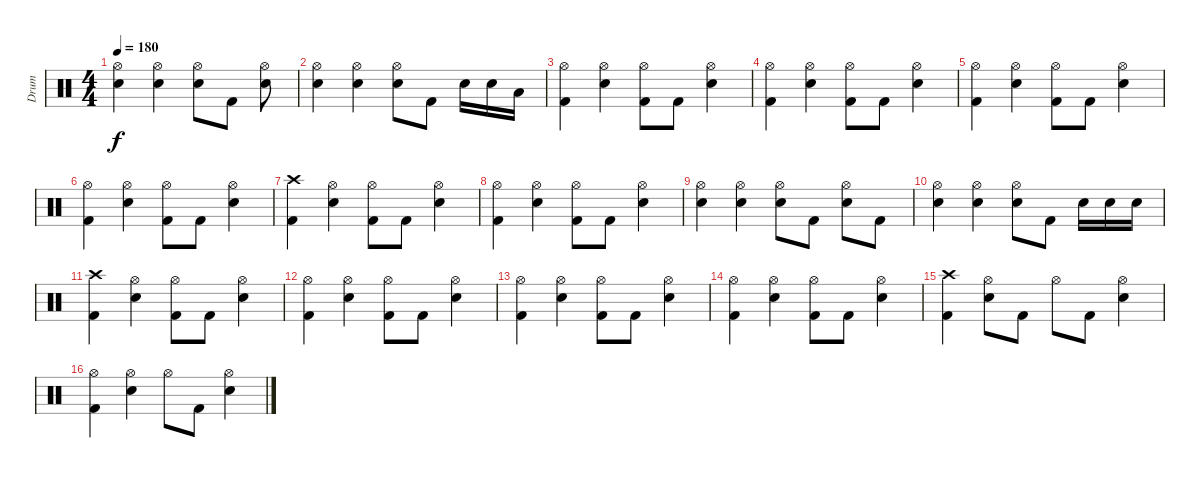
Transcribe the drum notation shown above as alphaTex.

\track ("Drum" "Drum") {instrument percussion}
\staff {score}
\articulation defaults
\ts (4 4)
\tempo 180
\clef neutral
\ks c
("Hi-Hat (open)" "Electric Snare (hit)").4{dy f} ("Hi-Hat (open)" "Electric Snare (hit)").4 ("Hi-Hat (open)" "Electric Snare (hit)").8 "Kick (hit) 2".8 ("Hi-Hat (open)" "Electric Snare (hit)").8 |
("Hi-Hat (open)" "Electric Snare (hit)").4 ("Hi-Hat (open)" "Electric Snare (hit)").4 ("Hi-Hat (open)" "Electric Snare (hit)").8 "Kick (hit) 2".8 "Electric Snare (hit)".16 "Electric Snare (hit)".16 "Low Tom (hit)".16 |
("Hi-Hat (open)" "Kick (hit) 2").4 ("Hi-Hat (open)" "Electric Snare (hit)").4 ("Hi-Hat (open)" "Kick (hit) 2").8 "Kick (hit) 2".8 ("Hi-Hat (open)" "Electric Snare (hit)").4 |
("Hi-Hat (open)" "Kick (hit) 2").4 ("Hi-Hat (open)" "Electric Snare (hit)").4 ("Hi-Hat (open)" "Kick (hit) 2").8 "Kick (hit) 2".8 ("Hi-Hat (open)" "Electric Snare (hit)").4 |
("Hi-Hat (open)" "Kick (hit) 2").4 ("Hi-Hat (open)" "Electric Snare (hit)").4 ("Hi-Hat (open)" "Kick (hit) 2").8 "Kick (hit) 2".8 ("Hi-Hat (open)" "Electric Snare (hit)").4 |
("Hi-Hat (open)" "Kick (hit) 2").4 ("Hi-Hat (open)" "Electric Snare (hit)").4 ("Hi-Hat (open)" "Kick (hit) 2").8 "Kick (hit) 2".8 ("Hi-Hat (open)" "Electric Snare (hit)").4 |
("Crash high (hit)" "Kick (hit) 2").4 ("Hi-Hat (open)" "Electric Snare (hit)").4 ("Hi-Hat (open)" "Kick (hit) 2").8 "Kick (hit) 2".8 ("Hi-Hat (open)" "Electric Snare (hit)").4 |
("Hi-Hat (open)" "Kick (hit) 2").4 ("Hi-Hat (open)" "Electric Snare (hit)").4 ("Hi-Hat (open)" "Kick (hit) 2").8 "Kick (hit) 2".8 ("Hi-Hat (open)" "Electric Snare (hit)").4 |
("Hi-Hat (open)" "Electric Snare (hit)").4 ("Hi-Hat (open)" "Electric Snare (hit)").4 ("Hi-Hat (open)" "Electric Snare (hit)").8 "Kick (hit) 2".8 ("Hi-Hat (open)" "Electric Snare (hit)").8 "Kick (hit) 2".8 |
("Hi-Hat (open)" "Electric Snare (hit)").4 ("Hi-Hat (open)" "Electric Snare (hit)").4 ("Hi-Hat (open)" "Electric Snare (hit)").8 "Kick (hit) 2".8 "Electric Snare (hit)".16 "Electric Snare (hit)".16 "Electric Snare (hit)".16 |
("Crash high (hit)" "Kick (hit) 2").4 ("Hi-Hat (open)" "Electric Snare (hit)").4 ("Hi-Hat (open)" "Kick (hit) 2").8 "Kick (hit) 2".8 ("Hi-Hat (open)" "Electric Snare (hit)").4 |
("Hi-Hat (open)" "Kick (hit) 2").4 ("Hi-Hat (open)" "Electric Snare (hit)").4 ("Hi-Hat (open)" "Kick (hit) 2").8 "Kick (hit) 2".8 ("Hi-Hat (open)" "Electric Snare (hit)").4 |
("Hi-Hat (open)" "Kick (hit) 2").4 ("Hi-Hat (open)" "Electric Snare (hit)").4 ("Hi-Hat (open)" "Kick (hit) 2").8 "Kick (hit) 2".8 ("Hi-Hat (open)" "Electric Snare (hit)").4 |
("Hi-Hat (open)" "Kick (hit) 2").4 ("Hi-Hat (open)" "Electric Snare (hit)").4 ("Hi-Hat (open)" "Kick (hit) 2").8 "Kick (hit) 2".8 ("Hi-Hat (open)" "Electric Snare (hit)").4 |
("Crash high (hit)" "Kick (hit) 2").4 ("Hi-Hat (open)" "Electric Snare (hit)").8 "Kick (hit) 2".8 "Hi-Hat (open)".8 "Kick (hit) 2".8 ("Hi-Hat (open)" "Electric Snare (hit)").4 |
("Hi-Hat (open)" "Kick (hit) 2").4 ("Hi-Hat (open)" "Electric Snare (hit)").4 "Hi-Hat (open)".8 "Kick (hit) 2".8 ("Hi-Hat (open)" "Electric Snare (hit)").4
